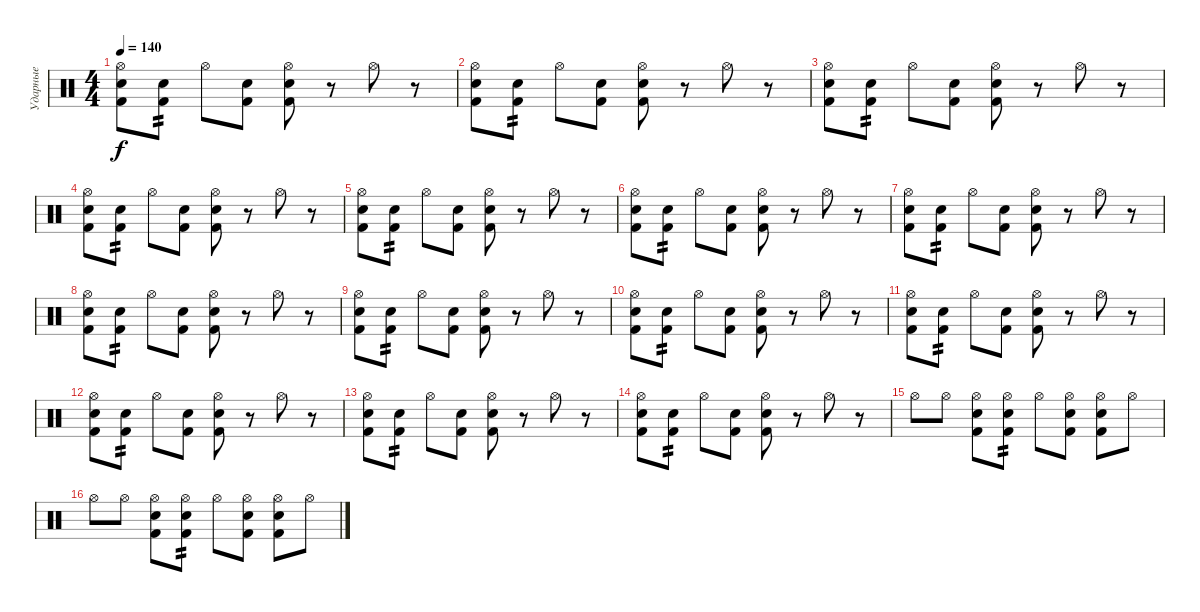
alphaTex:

\track ("Ударные" "Ударные") {instrument percussion}
\staff {score}
\articulation defaults
\ts (4 4)
\tempo 140
\clef neutral
\ks c
("Snare (hit) 2" "Kick (hit) 2" "Hi-Hat (open)").8{dy f} ("Snare (hit) 2" "Kick (hit) 2").8{tp 2} "Hi-Hat (open)".8 ("Snare (hit) 2" "Kick (hit) 2").8 ("Snare (hit) 2" "Kick (hit) 2" "Hi-Hat (open)").8 r.8 "Hi-Hat (open)".8 r.8 |
("Snare (hit) 2" "Kick (hit) 2" "Hi-Hat (open)").8 ("Snare (hit) 2" "Kick (hit) 2").8{tp 2} "Hi-Hat (open)".8 ("Snare (hit) 2" "Kick (hit) 2").8 ("Snare (hit) 2" "Kick (hit) 2" "Hi-Hat (open)").8 r.8 "Hi-Hat (open)".8 r.8 |
("Snare (hit) 2" "Kick (hit) 2" "Hi-Hat (open)").8 ("Snare (hit) 2" "Kick (hit) 2").8{tp 2} "Hi-Hat (open)".8 ("Snare (hit) 2" "Kick (hit) 2").8 ("Snare (hit) 2" "Kick (hit) 2" "Hi-Hat (open)").8 r.8 "Hi-Hat (open)".8 r.8 |
("Snare (hit) 2" "Kick (hit) 2" "Hi-Hat (open)").8 ("Snare (hit) 2" "Kick (hit) 2").8{tp 2} "Hi-Hat (open)".8 ("Snare (hit) 2" "Kick (hit) 2").8 ("Snare (hit) 2" "Kick (hit) 2" "Hi-Hat (open)").8 r.8 "Hi-Hat (open)".8 r.8 |
("Snare (hit) 2" "Kick (hit) 2" "Hi-Hat (open)").8 ("Snare (hit) 2" "Kick (hit) 2").8{tp 2} "Hi-Hat (open)".8 ("Snare (hit) 2" "Kick (hit) 2").8 ("Snare (hit) 2" "Kick (hit) 2" "Hi-Hat (open)").8 r.8 "Hi-Hat (open)".8 r.8 |
("Snare (hit) 2" "Kick (hit) 2" "Hi-Hat (open)").8 ("Snare (hit) 2" "Kick (hit) 2").8{tp 2} "Hi-Hat (open)".8 ("Snare (hit) 2" "Kick (hit) 2").8 ("Snare (hit) 2" "Kick (hit) 2" "Hi-Hat (open)").8 r.8 "Hi-Hat (open)".8 r.8 |
("Snare (hit) 2" "Kick (hit) 2" "Hi-Hat (open)").8 ("Snare (hit) 2" "Kick (hit) 2").8{tp 2} "Hi-Hat (open)".8 ("Snare (hit) 2" "Kick (hit) 2").8 ("Snare (hit) 2" "Kick (hit) 2" "Hi-Hat (open)").8 r.8 "Hi-Hat (open)".8 r.8 |
("Snare (hit) 2" "Kick (hit) 2" "Hi-Hat (open)").8 ("Snare (hit) 2" "Kick (hit) 2").8{tp 2} "Hi-Hat (open)".8 ("Snare (hit) 2" "Kick (hit) 2").8 ("Snare (hit) 2" "Kick (hit) 2" "Hi-Hat (open)").8 r.8 "Hi-Hat (open)".8 r.8 |
("Snare (hit) 2" "Kick (hit) 2" "Hi-Hat (open)").8 ("Snare (hit) 2" "Kick (hit) 2").8{tp 2} "Hi-Hat (open)".8 ("Snare (hit) 2" "Kick (hit) 2").8 ("Snare (hit) 2" "Kick (hit) 2" "Hi-Hat (open)").8 r.8 "Hi-Hat (open)".8 r.8 |
("Snare (hit) 2" "Kick (hit) 2" "Hi-Hat (open)").8 ("Snare (hit) 2" "Kick (hit) 2").8{tp 2} "Hi-Hat (open)".8 ("Snare (hit) 2" "Kick (hit) 2").8 ("Snare (hit) 2" "Kick (hit) 2" "Hi-Hat (open)").8 r.8 "Hi-Hat (open)".8 r.8 |
("Snare (hit) 2" "Kick (hit) 2" "Hi-Hat (open)").8 ("Snare (hit) 2" "Kick (hit) 2").8{tp 2} "Hi-Hat (open)".8 ("Snare (hit) 2" "Kick (hit) 2").8 ("Snare (hit) 2" "Kick (hit) 2" "Hi-Hat (open)").8 r.8 "Hi-Hat (open)".8 r.8 |
("Snare (hit) 2" "Kick (hit) 2" "Hi-Hat (open)").8 ("Snare (hit) 2" "Kick (hit) 2").8{tp 2} "Hi-Hat (open)".8 ("Snare (hit) 2" "Kick (hit) 2").8 ("Snare (hit) 2" "Kick (hit) 2" "Hi-Hat (open)").8 r.8 "Hi-Hat (open)".8 r.8 |
("Snare (hit) 2" "Kick (hit) 2" "Hi-Hat (open)").8 ("Snare (hit) 2" "Kick (hit) 2").8{tp 2} "Hi-Hat (open)".8 ("Snare (hit) 2" "Kick (hit) 2").8 ("Snare (hit) 2" "Kick (hit) 2" "Hi-Hat (open)").8 r.8 "Hi-Hat (open)".8 r.8 |
("Snare (hit) 2" "Kick (hit) 2" "Hi-Hat (open)").8 ("Snare (hit) 2" "Kick (hit) 2").8{tp 2} "Hi-Hat (open)".8 ("Snare (hit) 2" "Kick (hit) 2").8 ("Snare (hit) 2" "Kick (hit) 2" "Hi-Hat (open)").8 r.8 "Hi-Hat (open)".8 r.8 |
"Hi-Hat (open)".8 "Hi-Hat (open)".8 ("Snare (hit) 2" "Kick (hit) 2" "Hi-Hat (open)").8 ("Snare (hit) 2" "Kick (hit) 2" "Hi-Hat (open)").8{tp 2} "Hi-Hat (open)".8 ("Snare (hit) 2" "Kick (hit) 2" "Hi-Hat (open)").8 ("Snare (hit) 2" "Kick (hit) 2" "Hi-Hat (open)").8 "Hi-Hat (open)".8 |
"Hi-Hat (open)".8 "Hi-Hat (open)".8 ("Snare (hit) 2" "Kick (hit) 2" "Hi-Hat (open)").8 ("Snare (hit) 2" "Kick (hit) 2" "Hi-Hat (open)").8{tp 2} "Hi-Hat (open)".8 ("Snare (hit) 2" "Kick (hit) 2" "Hi-Hat (open)").8 ("Snare (hit) 2" "Kick (hit) 2" "Hi-Hat (open)").8 "Hi-Hat (open)".8
